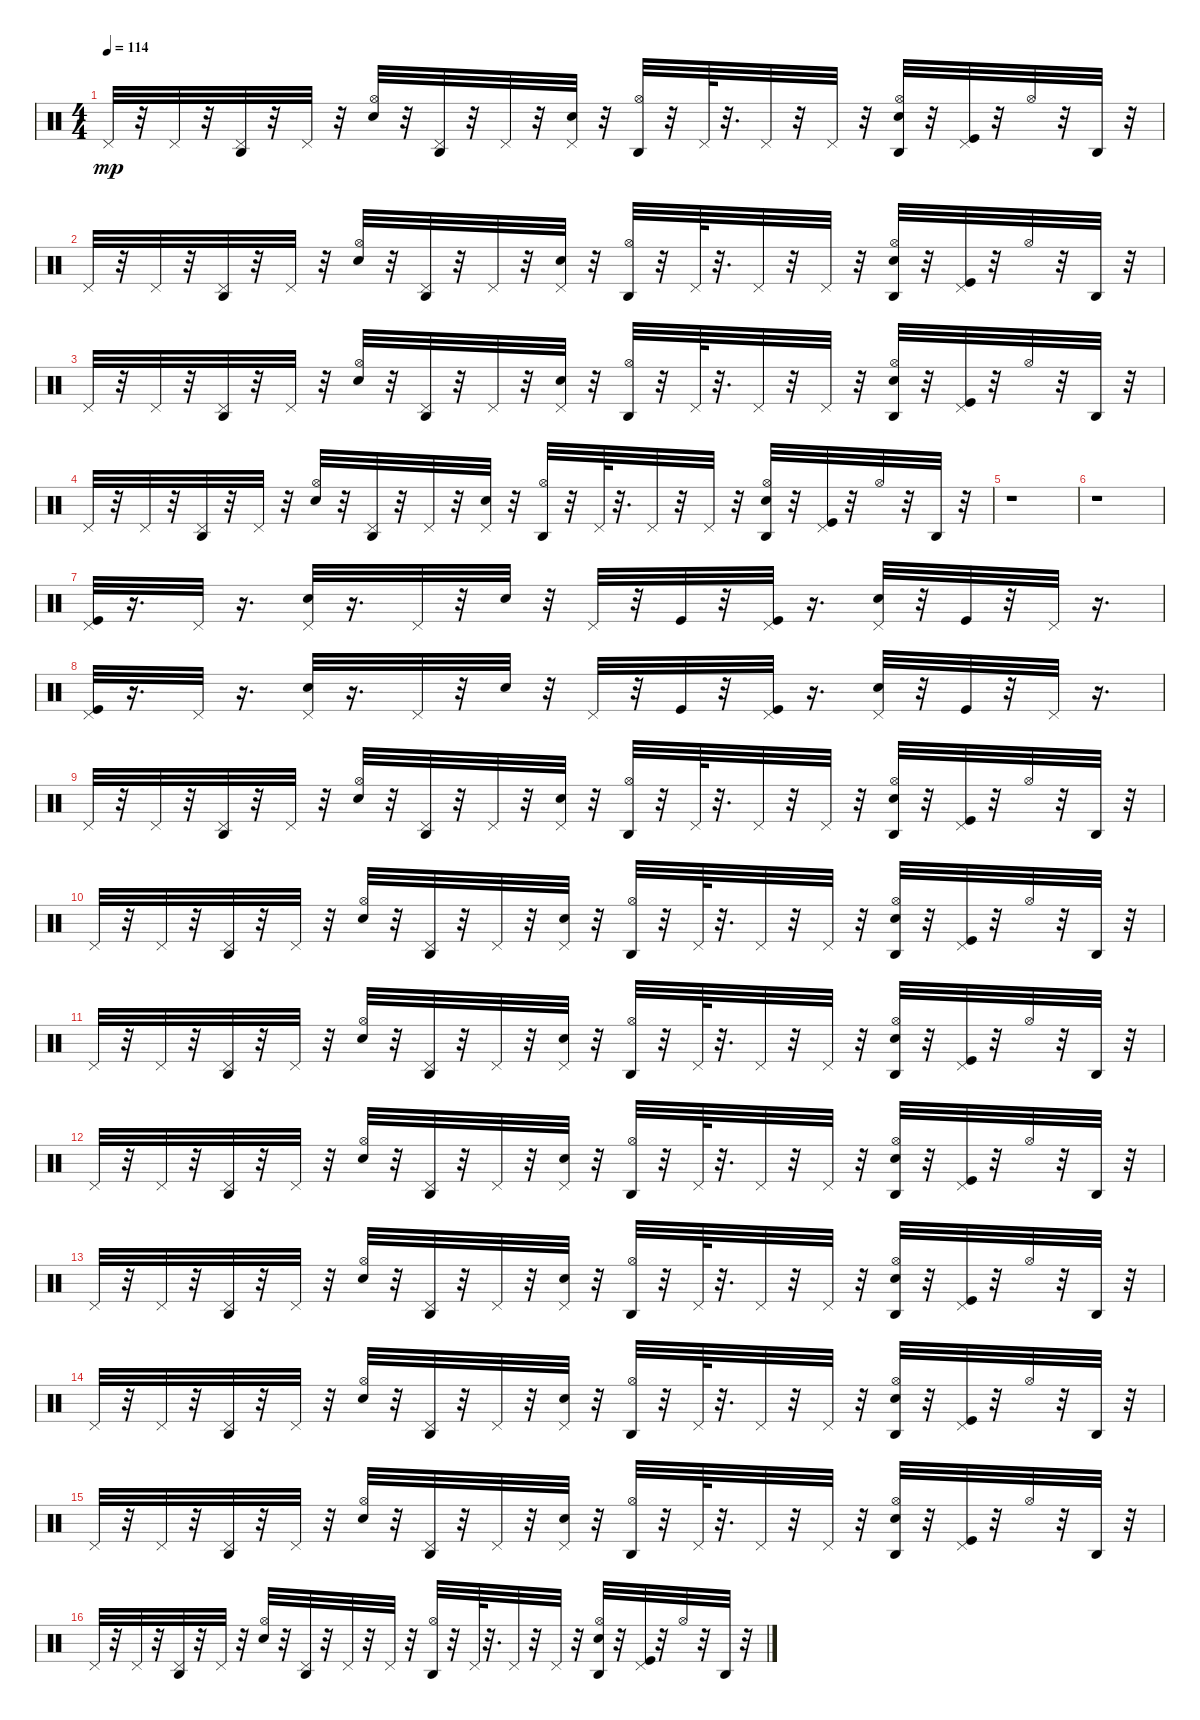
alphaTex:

\track "" {instrument percussion}
\staff {score}
\articulation defaults
\ts (4 4)
\tempo 114
\clef neutral
\ks c "Pedal Hi-Hat (hit)".32{dy mp}
r.32 "Pedal Hi-Hat (hit)".32 r.32 ("Agogo high (hit)" "Pedal Hi-Hat (hit)").32 r.32 "Pedal Hi-Hat (hit)".32 r.32 ("Hi-Hat (open)" "Electric Snare (hit)").32 r.32 ("Pedal Hi-Hat (hit)" "Agogo high (hit)").32 r.32 "Pedal Hi-Hat (hit)".32 r.32 ("Pedal Hi-Hat (hit)" "Snare (hit) 2").32 r.32 ("Hi-Hat (open)" "Agogo high (hit)").32 r.32 "Pedal Hi-Hat (hit)".64 r.32{d} "Pedal Hi-Hat (hit)".32 r.32 "Pedal Hi-Hat (hit)".32 r.32 ("Hi-Hat (open)" "Agogo high (hit)" "Electric Snare (hit)").32 r.32 ("Pedal Hi-Hat (hit)" "Kick (hit)").32 r.32 "Hi-Hat (open)".32 r.32 "Agogo high (hit)".32 r.32 |
"Pedal Hi-Hat (hit)".32 r.32 "Pedal Hi-Hat (hit)".32 r.32 ("Agogo high (hit)" "Pedal Hi-Hat (hit)").32 r.32 "Pedal Hi-Hat (hit)".32 r.32 ("Hi-Hat (open)" "Electric Snare (hit)").32 r.32 ("Pedal Hi-Hat (hit)" "Agogo high (hit)").32 r.32 "Pedal Hi-Hat (hit)".32 r.32 ("Pedal Hi-Hat (hit)" "Snare (hit) 2").32 r.32 ("Hi-Hat (open)" "Agogo high (hit)").32 r.32 "Pedal Hi-Hat (hit)".64 r.32{d} "Pedal Hi-Hat (hit)".32 r.32 "Pedal Hi-Hat (hit)".32 r.32 ("Hi-Hat (open)" "Agogo high (hit)" "Electric Snare (hit)").32 r.32 ("Pedal Hi-Hat (hit)" "Kick (hit)").32 r.32 "Hi-Hat (open)".32 r.32 "Agogo high (hit)".32 r.32 |
"Pedal Hi-Hat (hit)".32 r.32 "Pedal Hi-Hat (hit)".32 r.32 ("Agogo high (hit)" "Pedal Hi-Hat (hit)").32 r.32 "Pedal Hi-Hat (hit)".32 r.32 ("Hi-Hat (open)" "Electric Snare (hit)").32 r.32 ("Pedal Hi-Hat (hit)" "Agogo high (hit)").32 r.32 "Pedal Hi-Hat (hit)".32 r.32 ("Pedal Hi-Hat (hit)" "Snare (hit) 2").32 r.32 ("Hi-Hat (open)" "Agogo high (hit)").32 r.32 "Pedal Hi-Hat (hit)".64 r.32{d} "Pedal Hi-Hat (hit)".32 r.32 "Pedal Hi-Hat (hit)".32 r.32 ("Hi-Hat (open)" "Agogo high (hit)" "Electric Snare (hit)").32 r.32 ("Pedal Hi-Hat (hit)" "Kick (hit)").32 r.32 "Hi-Hat (open)".32 r.32 "Agogo high (hit)".32 r.32 |
"Pedal Hi-Hat (hit)".32 r.32 "Pedal Hi-Hat (hit)".32 r.32 ("Agogo high (hit)" "Pedal Hi-Hat (hit)").32 r.32 "Pedal Hi-Hat (hit)".32 r.32 ("Hi-Hat (open)" "Electric Snare (hit)").32 r.32 ("Pedal Hi-Hat (hit)" "Agogo high (hit)").32 r.32 "Pedal Hi-Hat (hit)".32 r.32 ("Pedal Hi-Hat (hit)" "Snare (hit) 2").32 r.32 ("Hi-Hat (open)" "Agogo high (hit)").32 r.32 "Pedal Hi-Hat (hit)".64 r.32{d} "Pedal Hi-Hat (hit)".32 r.32 "Pedal Hi-Hat (hit)".32 r.32 ("Hi-Hat (open)" "Agogo high (hit)" "Electric Snare (hit)").32 r.32 ("Pedal Hi-Hat (hit)" "Kick (hit)").32 r.32 "Hi-Hat (open)".32 r.32 "Agogo high (hit)".32 r.32 |
r.1 |
r.1 |
("Kick (hit)" "Pedal Hi-Hat (hit)").32 r.16{d} "Pedal Hi-Hat (hit)".32 r.16{d} ("Pedal Hi-Hat (hit)" "Electric Snare (hit)").32 r.16{d} "Pedal Hi-Hat (hit)".32 r.32 "Snare (hit) 2".32 r.32 "Pedal Hi-Hat (hit)".32 r.32 "Kick (hit)".32 r.32 ("Pedal Hi-Hat (hit)" "Kick (hit)").32 r.16{d} ("Pedal Hi-Hat (hit)" "Electric Snare (hit)").32 r.32 "Kick (hit)".32 r.32 "Pedal Hi-Hat (hit)".32 r.16{d} |
("Pedal Hi-Hat (hit)" "Kick (hit)").32 r.16{d} "Pedal Hi-Hat (hit)".32 r.16{d} ("Pedal Hi-Hat (hit)" "Electric Snare (hit)").32 r.16{d} "Pedal Hi-Hat (hit)".32 r.32 "Snare (hit) 2".32 r.32 "Pedal Hi-Hat (hit)".32 r.32 "Kick (hit)".32 r.32 ("Pedal Hi-Hat (hit)" "Kick (hit)").32 r.16{d} ("Pedal Hi-Hat (hit)" "Electric Snare (hit)").32 r.32 "Kick (hit)".32 r.32 "Pedal Hi-Hat (hit)".32 r.16{d} |
"Pedal Hi-Hat (hit)".32 r.32 "Pedal Hi-Hat (hit)".32 r.32 ("Agogo high (hit)" "Pedal Hi-Hat (hit)").32 r.32 "Pedal Hi-Hat (hit)".32 r.32 ("Hi-Hat (open)" "Electric Snare (hit)").32 r.32 ("Pedal Hi-Hat (hit)" "Agogo high (hit)").32 r.32 "Pedal Hi-Hat (hit)".32 r.32 ("Pedal Hi-Hat (hit)" "Snare (hit) 2").32 r.32 ("Hi-Hat (open)" "Agogo high (hit)").32 r.32 "Pedal Hi-Hat (hit)".64 r.32{d} "Pedal Hi-Hat (hit)".32 r.32 "Pedal Hi-Hat (hit)".32 r.32 ("Hi-Hat (open)" "Agogo high (hit)" "Electric Snare (hit)").32 r.32 ("Pedal Hi-Hat (hit)" "Kick (hit)").32 r.32 "Hi-Hat (open)".32 r.32 "Agogo high (hit)".32 r.32 |
"Pedal Hi-Hat (hit)".32 r.32 "Pedal Hi-Hat (hit)".32 r.32 ("Agogo high (hit)" "Pedal Hi-Hat (hit)").32 r.32 "Pedal Hi-Hat (hit)".32 r.32 ("Hi-Hat (open)" "Electric Snare (hit)").32 r.32 ("Pedal Hi-Hat (hit)" "Agogo high (hit)").32 r.32 "Pedal Hi-Hat (hit)".32 r.32 ("Pedal Hi-Hat (hit)" "Snare (hit) 2").32 r.32 ("Hi-Hat (open)" "Agogo high (hit)").32 r.32 "Pedal Hi-Hat (hit)".64 r.32{d} "Pedal Hi-Hat (hit)".32 r.32 "Pedal Hi-Hat (hit)".32 r.32 ("Hi-Hat (open)" "Agogo high (hit)" "Electric Snare (hit)").32 r.32 ("Pedal Hi-Hat (hit)" "Kick (hit)").32 r.32 "Hi-Hat (open)".32 r.32 "Agogo high (hit)".32 r.32 |
"Pedal Hi-Hat (hit)".32 r.32 "Pedal Hi-Hat (hit)".32 r.32 ("Agogo high (hit)" "Pedal Hi-Hat (hit)").32 r.32 "Pedal Hi-Hat (hit)".32 r.32 ("Hi-Hat (open)" "Electric Snare (hit)").32 r.32 ("Pedal Hi-Hat (hit)" "Agogo high (hit)").32 r.32 "Pedal Hi-Hat (hit)".32 r.32 ("Pedal Hi-Hat (hit)" "Snare (hit) 2").32 r.32 ("Hi-Hat (open)" "Agogo high (hit)").32 r.32 "Pedal Hi-Hat (hit)".64 r.32{d} "Pedal Hi-Hat (hit)".32 r.32 "Pedal Hi-Hat (hit)".32 r.32 ("Hi-Hat (open)" "Agogo high (hit)" "Electric Snare (hit)").32 r.32 ("Pedal Hi-Hat (hit)" "Kick (hit)").32 r.32 "Hi-Hat (open)".32 r.32 "Agogo high (hit)".32 r.32 |
"Pedal Hi-Hat (hit)".32 r.32 "Pedal Hi-Hat (hit)".32 r.32 ("Agogo high (hit)" "Pedal Hi-Hat (hit)").32 r.32 "Pedal Hi-Hat (hit)".32 r.32 ("Hi-Hat (open)" "Electric Snare (hit)").32 r.32 ("Pedal Hi-Hat (hit)" "Agogo high (hit)").32 r.32 "Pedal Hi-Hat (hit)".32 r.32 ("Pedal Hi-Hat (hit)" "Snare (hit) 2").32 r.32 ("Hi-Hat (open)" "Agogo high (hit)").32 r.32 "Pedal Hi-Hat (hit)".64 r.32{d} "Pedal Hi-Hat (hit)".32 r.32 "Pedal Hi-Hat (hit)".32 r.32 ("Hi-Hat (open)" "Agogo high (hit)" "Electric Snare (hit)").32 r.32 ("Pedal Hi-Hat (hit)" "Kick (hit)").32 r.32 "Hi-Hat (open)".32 r.32 "Agogo high (hit)".32 r.32 |
"Pedal Hi-Hat (hit)".32 r.32 "Pedal Hi-Hat (hit)".32 r.32 ("Agogo high (hit)" "Pedal Hi-Hat (hit)").32 r.32 "Pedal Hi-Hat (hit)".32 r.32 ("Hi-Hat (open)" "Electric Snare (hit)").32 r.32 ("Pedal Hi-Hat (hit)" "Agogo high (hit)").32 r.32 "Pedal Hi-Hat (hit)".32 r.32 ("Pedal Hi-Hat (hit)" "Snare (hit) 2").32 r.32 ("Hi-Hat (open)" "Agogo high (hit)").32 r.32 "Pedal Hi-Hat (hit)".64 r.32{d} "Pedal Hi-Hat (hit)".32 r.32 "Pedal Hi-Hat (hit)".32 r.32 ("Hi-Hat (open)" "Agogo high (hit)" "Electric Snare (hit)").32 r.32 ("Pedal Hi-Hat (hit)" "Kick (hit)").32 r.32 "Hi-Hat (open)".32 r.32 "Agogo high (hit)".32 r.32 |
"Pedal Hi-Hat (hit)".32 r.32 "Pedal Hi-Hat (hit)".32 r.32 ("Agogo high (hit)" "Pedal Hi-Hat (hit)").32 r.32 "Pedal Hi-Hat (hit)".32 r.32 ("Hi-Hat (open)" "Electric Snare (hit)").32 r.32 ("Pedal Hi-Hat (hit)" "Agogo high (hit)").32 r.32 "Pedal Hi-Hat (hit)".32 r.32 ("Pedal Hi-Hat (hit)" "Snare (hit) 2").32 r.32 ("Hi-Hat (open)" "Agogo high (hit)").32 r.32 "Pedal Hi-Hat (hit)".64 r.32{d} "Pedal Hi-Hat (hit)".32 r.32 "Pedal Hi-Hat (hit)".32 r.32 ("Hi-Hat (open)" "Agogo high (hit)" "Electric Snare (hit)").32 r.32 ("Pedal Hi-Hat (hit)" "Kick (hit)").32 r.32 "Hi-Hat (open)".32 r.32 "Agogo high (hit)".32 r.32 |
"Pedal Hi-Hat (hit)".32 r.32 "Pedal Hi-Hat (hit)".32 r.32 ("Agogo high (hit)" "Pedal Hi-Hat (hit)").32 r.32 "Pedal Hi-Hat (hit)".32 r.32 ("Hi-Hat (open)" "Electric Snare (hit)").32 r.32 ("Pedal Hi-Hat (hit)" "Agogo high (hit)").32 r.32 "Pedal Hi-Hat (hit)".32 r.32 ("Pedal Hi-Hat (hit)" "Snare (hit) 2").32 r.32 ("Hi-Hat (open)" "Agogo high (hit)").32 r.32 "Pedal Hi-Hat (hit)".64 r.32{d} "Pedal Hi-Hat (hit)".32 r.32 "Pedal Hi-Hat (hit)".32 r.32 ("Hi-Hat (open)" "Agogo high (hit)" "Electric Snare (hit)").32 r.32 ("Pedal Hi-Hat (hit)" "Kick (hit)").32 r.32 "Hi-Hat (open)".32 r.32 "Agogo high (hit)".32 r.32 |
"Pedal Hi-Hat (hit)".32 r.32 "Pedal Hi-Hat (hit)".32 r.32 ("Agogo high (hit)" "Pedal Hi-Hat (hit)").32 r.32 "Pedal Hi-Hat (hit)".32 r.32 ("Hi-Hat (open)" "Electric Snare (hit)").32 r.32 ("Pedal Hi-Hat (hit)" "Agogo high (hit)").32 r.32 "Pedal Hi-Hat (hit)".32 r.32 "Pedal Hi-Hat (hit)".32 r.32 ("Agogo high (hit)" "Hi-Hat (open)").32 r.32 "Pedal Hi-Hat (hit)".64 r.32{d} "Pedal Hi-Hat (hit)".32 r.32 "Pedal Hi-Hat (hit)".32 r.32 ("Hi-Hat (open)" "Electric Snare (hit)" "Agogo high (hit)").32 r.32 ("Pedal Hi-Hat (hit)" "Kick (hit)").32 r.32 "Hi-Hat (open)".32 r.32 "Agogo high (hit)".32 r.32
